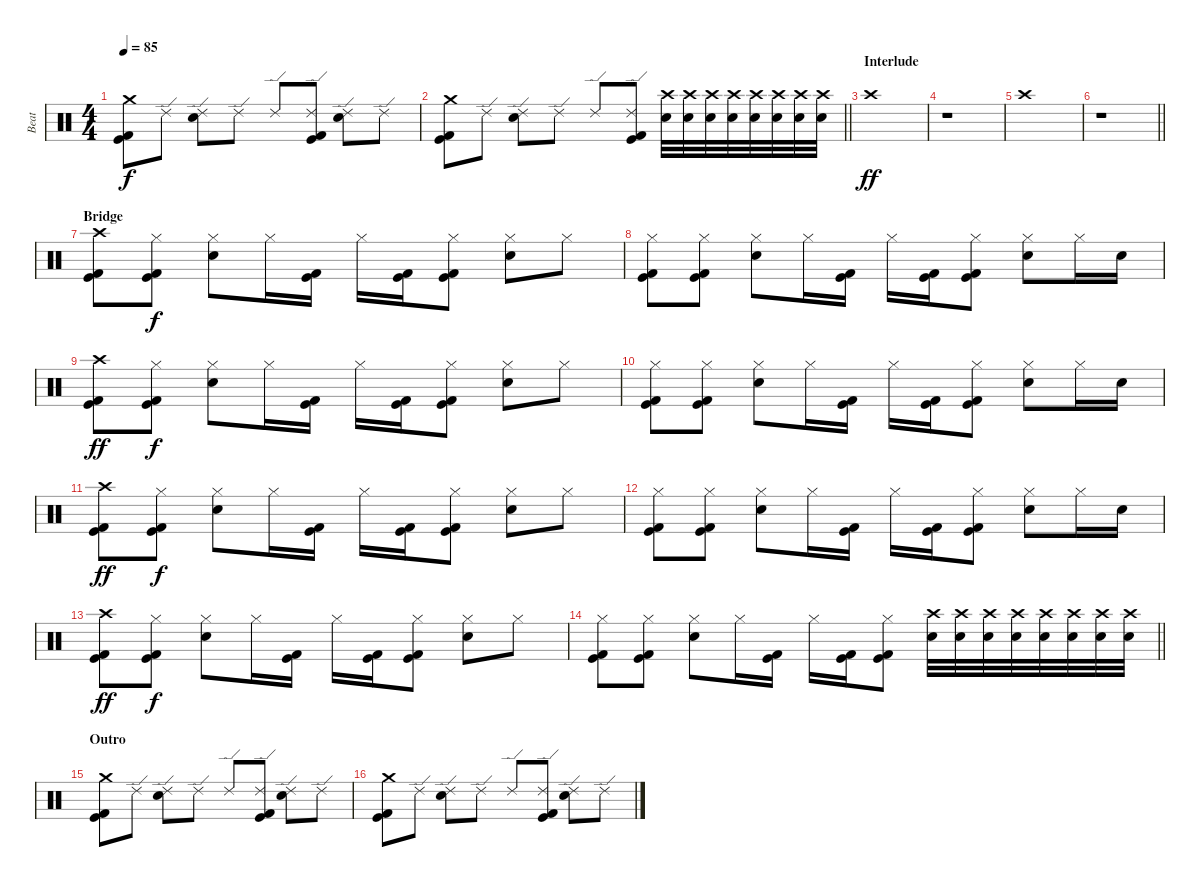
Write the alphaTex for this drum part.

\track ("Beat" "Beat") {instrument percussion}
\staff {score}
\articulation defaults
\ts (4 4)
\tempo 85
\clef neutral
\ks c
("Crash medium (hit)" "Kick (hit)" "Kick (hit) 2").8{dy f} "Ride (edge) 2".8 ("Ride (edge) 2" "Snare (hit) 2").8 "Ride (edge) 2".8 "Ride (edge) 2".8 ("Ride (edge) 2" "Kick (hit)" "Kick (hit) 2").8 ("Ride (edge) 2" "Snare (hit) 2").8 "Ride (edge) 2".8 |
\barLineRight lightlight
("Crash medium (hit)" "Kick (hit)" "Kick (hit) 2").8 "Ride (edge) 2".8 ("Ride (edge) 2" "Snare (hit) 2").8 "Ride (edge) 2".8 "Ride (edge) 2".8 ("Ride (edge) 2" "Kick (hit)" "Kick (hit) 2").8 ("Crash high (hit)" "Snare (hit) 2").32 ("Crash high (hit)" "Snare (hit) 2").32 ("Crash high (hit)" "Snare (hit) 2").32 ("Crash high (hit)" "Snare (hit) 2").32 ("Crash high (hit)" "Snare (hit) 2").32 ("Crash high (hit)" "Snare (hit) 2").32 ("Crash high (hit)" "Snare (hit) 2").32 ("Crash high (hit)" "Snare (hit) 2").32 |
\section ("" "Interlude")
"Crash high (hit)".1{dy ff} |
r.1 |
"Crash high (hit)".1 |
\barLineRight lightlight
r.1 |
\section ("" "Bridge")
("Crash high (hit)" "Kick (hit)" "Kick (hit) 2").8 ("Hi-Hat (closed)" "Kick (hit)" "Kick (hit) 2").8{dy f} ("Hi-Hat (closed)" "Snare (hit) 2").8 "Hi-Hat (closed)".16 ("Kick (hit)" "Kick (hit) 2").16 "Hi-Hat (closed)".16 ("Kick (hit)" "Kick (hit) 2").16 ("Hi-Hat (closed)" "Kick (hit)" "Kick (hit) 2").8 ("Hi-Hat (closed)" "Snare (hit) 2").8 "Hi-Hat (closed)".8 |
("Hi-Hat (closed)" "Kick (hit)" "Kick (hit) 2").8 ("Hi-Hat (closed)" "Kick (hit)" "Kick (hit) 2").8 ("Hi-Hat (closed)" "Snare (hit) 2").8 "Hi-Hat (closed)".16 ("Kick (hit)" "Kick (hit) 2").16 "Hi-Hat (closed)".16 ("Kick (hit)" "Kick (hit) 2").16 ("Hi-Hat (closed)" "Kick (hit)" "Kick (hit) 2").8 ("Hi-Hat (closed)" "Snare (hit) 2").8 "Hi-Hat (closed)".16 "Snare (hit) 2".16 |
("Crash high (hit)" "Kick (hit)" "Kick (hit) 2").8{dy ff} ("Hi-Hat (closed)" "Kick (hit)" "Kick (hit) 2").8{dy f} ("Hi-Hat (closed)" "Snare (hit) 2").8 "Hi-Hat (closed)".16 ("Kick (hit)" "Kick (hit) 2").16 "Hi-Hat (closed)".16 ("Kick (hit)" "Kick (hit) 2").16 ("Hi-Hat (closed)" "Kick (hit)" "Kick (hit) 2").8 ("Hi-Hat (closed)" "Snare (hit) 2").8 "Hi-Hat (closed)".8 |
("Hi-Hat (closed)" "Kick (hit)" "Kick (hit) 2").8 ("Hi-Hat (closed)" "Kick (hit)" "Kick (hit) 2").8 ("Hi-Hat (closed)" "Snare (hit) 2").8 "Hi-Hat (closed)".16 ("Kick (hit)" "Kick (hit) 2").16 "Hi-Hat (closed)".16 ("Kick (hit)" "Kick (hit) 2").16 ("Hi-Hat (closed)" "Kick (hit)" "Kick (hit) 2").8 ("Hi-Hat (closed)" "Snare (hit) 2").8 "Hi-Hat (closed)".16 "Snare (hit) 2".16 |
("Crash high (hit)" "Kick (hit)" "Kick (hit) 2").8{dy ff} ("Hi-Hat (closed)" "Kick (hit)" "Kick (hit) 2").8{dy f} ("Hi-Hat (closed)" "Snare (hit) 2").8 "Hi-Hat (closed)".16 ("Kick (hit)" "Kick (hit) 2").16 "Hi-Hat (closed)".16 ("Kick (hit)" "Kick (hit) 2").16 ("Hi-Hat (closed)" "Kick (hit)" "Kick (hit) 2").8 ("Hi-Hat (closed)" "Snare (hit) 2").8 "Hi-Hat (closed)".8 |
("Hi-Hat (closed)" "Kick (hit)" "Kick (hit) 2").8 ("Hi-Hat (closed)" "Kick (hit)" "Kick (hit) 2").8 ("Hi-Hat (closed)" "Snare (hit) 2").8 "Hi-Hat (closed)".16 ("Kick (hit)" "Kick (hit) 2").16 "Hi-Hat (closed)".16 ("Kick (hit)" "Kick (hit) 2").16 ("Hi-Hat (closed)" "Kick (hit)" "Kick (hit) 2").8 ("Hi-Hat (closed)" "Snare (hit) 2").8 "Hi-Hat (closed)".16 "Snare (hit) 2".16 |
("Crash high (hit)" "Kick (hit)" "Kick (hit) 2").8{dy ff} ("Hi-Hat (closed)" "Kick (hit)" "Kick (hit) 2").8{dy f} ("Hi-Hat (closed)" "Snare (hit) 2").8 "Hi-Hat (closed)".16 ("Kick (hit)" "Kick (hit) 2").16 "Hi-Hat (closed)".16 ("Kick (hit)" "Kick (hit) 2").16 ("Hi-Hat (closed)" "Kick (hit)" "Kick (hit) 2").8 ("Hi-Hat (closed)" "Snare (hit) 2").8 "Hi-Hat (closed)".8 |
\barLineRight lightlight
("Hi-Hat (closed)" "Kick (hit)" "Kick (hit) 2").8 ("Hi-Hat (closed)" "Kick (hit)" "Kick (hit) 2").8 ("Hi-Hat (closed)" "Snare (hit) 2").8 "Hi-Hat (closed)".16 ("Kick (hit)" "Kick (hit) 2").16 "Hi-Hat (closed)".16 ("Kick (hit)" "Kick (hit) 2").16 ("Hi-Hat (closed)" "Kick (hit)" "Kick (hit) 2").8 ("Crash high (hit)" "Snare (hit) 2").32 ("Crash high (hit)" "Snare (hit) 2").32 ("Crash high (hit)" "Snare (hit) 2").32 ("Crash high (hit)" "Snare (hit) 2").32 ("Crash high (hit)" "Snare (hit) 2").32 ("Crash high (hit)" "Snare (hit) 2").32 ("Crash high (hit)" "Snare (hit) 2").32 ("Crash high (hit)" "Snare (hit) 2").32 |
\section ("" "Outro")
("Crash medium (hit)" "Kick (hit)" "Kick (hit) 2").8 "Ride (edge) 2".8 ("Ride (edge) 2" "Snare (hit) 2").8 "Ride (edge) 2".8 "Ride (edge) 2".8 ("Ride (edge) 2" "Kick (hit)" "Kick (hit) 2").8 ("Ride (edge) 2" "Snare (hit) 2").8 "Ride (edge) 2".8 |
("Crash medium (hit)" "Kick (hit)" "Kick (hit) 2").8 "Ride (edge) 2".8 ("Ride (edge) 2" "Snare (hit) 2").8 "Ride (edge) 2".8 "Ride (edge) 2".8 ("Ride (edge) 2" "Kick (hit)" "Kick (hit) 2").8 ("Ride (edge) 2" "Snare (hit) 2").8 "Ride (edge) 2".8
